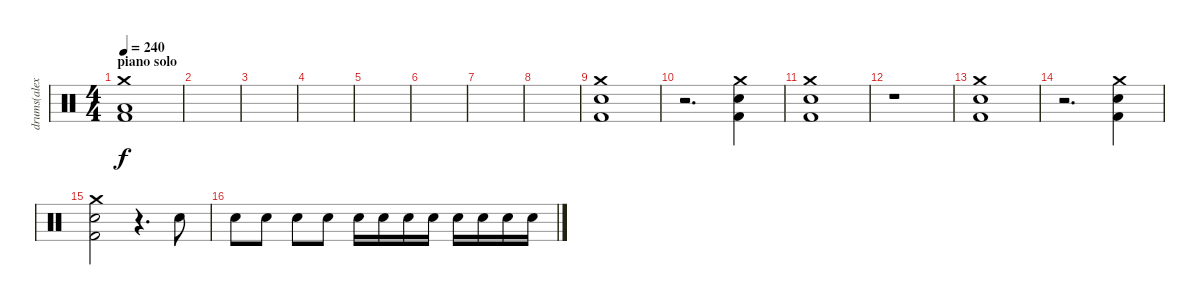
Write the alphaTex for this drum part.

\track ("drums(alex holzshwart)" "drums(alex") {instrument percussion}
\staff {score}
\articulation defaults
\ts (4 4)
\section ("" "piano solo")
\tempo 240
\clef neutral
\ks c
("Crash medium (hit)" "Low Floor Tom (hit)" "Kick (hit) 2").1{dy f} |
|
|
|
|
|
|
|
("Crash medium (hit)" "Electric Snare (hit)" "Kick (hit) 2").1 |
r.2{d} ("Crash medium (hit)" "Electric Snare (hit)" "Kick (hit) 2").4 |
("Crash medium (hit)" "Electric Snare (hit)" "Kick (hit) 2").1 |
r.1 |
("Crash medium (hit)" "Electric Snare (hit)" "Kick (hit) 2").1 |
r.2{d} ("Crash medium (hit)" "Electric Snare (hit)" "Kick (hit) 2").4 |
("Crash medium (hit)" "Electric Snare (hit)" "Kick (hit) 2").2 r.4{d} "Electric Snare (hit)".8 |
"Electric Snare (hit)".8 "Electric Snare (hit)".8 "Electric Snare (hit)".8 "Electric Snare (hit)".8 "Electric Snare (hit)".16 "Electric Snare (hit)".16 "Electric Snare (hit)".16 "Electric Snare (hit)".16 "Electric Snare (hit)".16 "Electric Snare (hit)".16 "Electric Snare (hit)".16 "Electric Snare (hit)".16
